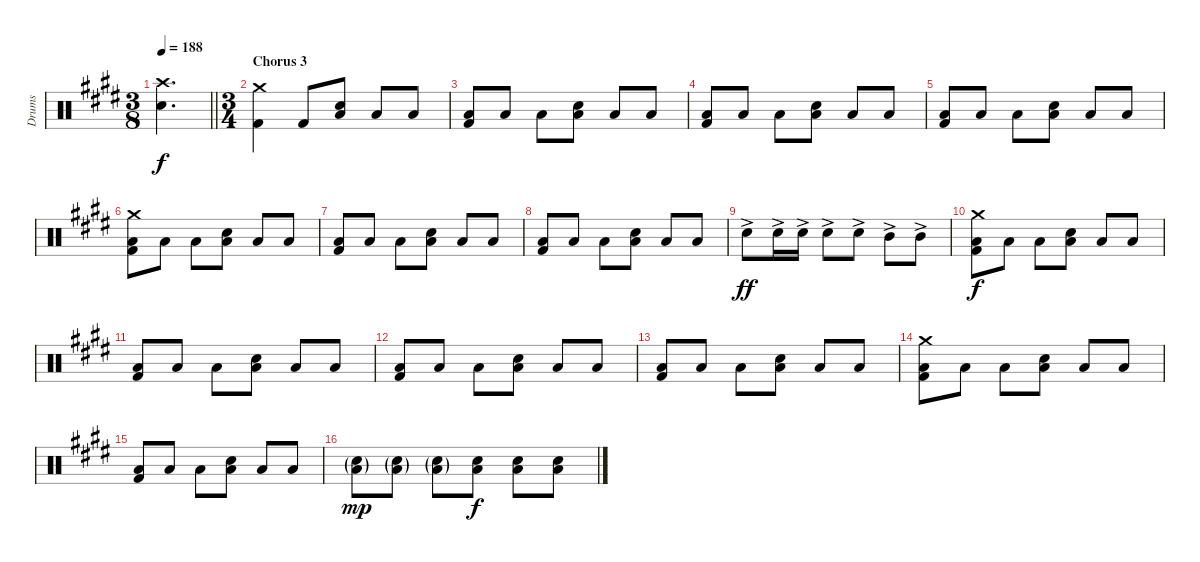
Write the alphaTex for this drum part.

\track ("Drums" "Drums") {instrument percussion}
\staff {score}
\articulation defaults
\ts (3 8)
\tempo 188
\clef neutral
\barLineRight lightlight
\ks e
("Crash high (hit)" "Electric Snare (hit)").4{d dy f} |
\ts (3 4)
\section ("" "Chorus 3")
("Crash medium (hit)" "Kick (hit) 2").4 "Kick (hit) 2".8 ("Electric Snare (hit)" "Low Floor Tom (hit)").8 "Low Floor Tom (hit)".8 "Low Floor Tom (hit)".8 |
("Low Floor Tom (hit)" "Kick (hit) 2").8 "Low Floor Tom (hit)".8 "Low Floor Tom (hit)".8 ("Electric Snare (hit)" "Low Floor Tom (hit)").8 "Low Floor Tom (hit)".8 "Low Floor Tom (hit)".8 |
("Low Floor Tom (hit)" "Kick (hit) 2").8 "Low Floor Tom (hit)".8 "Low Floor Tom (hit)".8 ("Electric Snare (hit)" "Low Floor Tom (hit)").8 "Low Floor Tom (hit)".8 "Low Floor Tom (hit)".8 |
("Low Floor Tom (hit)" "Kick (hit) 2").8 "Low Floor Tom (hit)".8 "Low Floor Tom (hit)".8 ("Electric Snare (hit)" "Low Floor Tom (hit)").8 "Low Floor Tom (hit)".8 "Low Floor Tom (hit)".8 |
("Crash medium (hit)" "Low Floor Tom (hit)" "Kick (hit) 2").8 "Low Floor Tom (hit)".8 "Low Floor Tom (hit)".8 ("Electric Snare (hit)" "Low Floor Tom (hit)").8 "Low Floor Tom (hit)".8 "Low Floor Tom (hit)".8 |
("Low Floor Tom (hit)" "Kick (hit) 2").8 "Low Floor Tom (hit)".8 "Low Floor Tom (hit)".8 ("Electric Snare (hit)" "Low Floor Tom (hit)").8 "Low Floor Tom (hit)".8 "Low Floor Tom (hit)".8 |
("Low Floor Tom (hit)" "Kick (hit) 2").8 "Low Floor Tom (hit)".8 "Low Floor Tom (hit)".8 ("Electric Snare (hit)" "Low Floor Tom (hit)").8 "Low Floor Tom (hit)".8 "Low Floor Tom (hit)".8 |
"Electric Snare (hit)"{ac}.8{dy ff} "Electric Snare (hit)"{ac}.16 "Electric Snare (hit)"{ac}.16 "Electric Snare (hit)"{ac}.8 "Electric Snare (hit)"{ac}.8 "Mid Tom (hit)"{ac}.8 "Mid Tom (hit)"{ac}.8 |
("Crash medium (hit)" "Low Floor Tom (hit)" "Kick (hit) 2").8{dy f} "Low Floor Tom (hit)".8 "Low Floor Tom (hit)".8 ("Electric Snare (hit)" "Low Floor Tom (hit)").8 "Low Floor Tom (hit)".8 "Low Floor Tom (hit)".8 |
("Low Floor Tom (hit)" "Kick (hit) 2").8 "Low Floor Tom (hit)".8 "Low Floor Tom (hit)".8 ("Electric Snare (hit)" "Low Floor Tom (hit)").8 "Low Floor Tom (hit)".8 "Low Floor Tom (hit)".8 |
("Low Floor Tom (hit)" "Kick (hit) 2").8 "Low Floor Tom (hit)".8 "Low Floor Tom (hit)".8 ("Electric Snare (hit)" "Low Floor Tom (hit)").8 "Low Floor Tom (hit)".8 "Low Floor Tom (hit)".8 |
("Low Floor Tom (hit)" "Kick (hit) 2").8 "Low Floor Tom (hit)".8 "Low Floor Tom (hit)".8 ("Electric Snare (hit)" "Low Floor Tom (hit)").8 "Low Floor Tom (hit)".8 "Low Floor Tom (hit)".8 |
("Crash medium (hit)" "Low Floor Tom (hit)" "Kick (hit) 2").8 "Low Floor Tom (hit)".8 "Low Floor Tom (hit)".8 ("Electric Snare (hit)" "Low Floor Tom (hit)").8 "Low Floor Tom (hit)".8 "Low Floor Tom (hit)".8 |
("Low Floor Tom (hit)" "Kick (hit) 2").8 "Low Floor Tom (hit)".8 "Low Floor Tom (hit)".8 ("Electric Snare (hit)" "Low Floor Tom (hit)").8 "Low Floor Tom (hit)".8 "Low Floor Tom (hit)".8 |
("Electric Snare (hit)"{g} "Low Floor Tom (hit)"{g}).8{dy mp} ("Electric Snare (hit)"{g} "Low Floor Tom (hit)"{g}).8 ("Electric Snare (hit)"{g} "Low Floor Tom (hit)"{g}).8 ("Electric Snare (hit)" "Low Floor Tom (hit)").8{dy f} ("Electric Snare (hit)" "Low Floor Tom (hit)").8 ("Electric Snare (hit)" "Low Floor Tom (hit)").8
